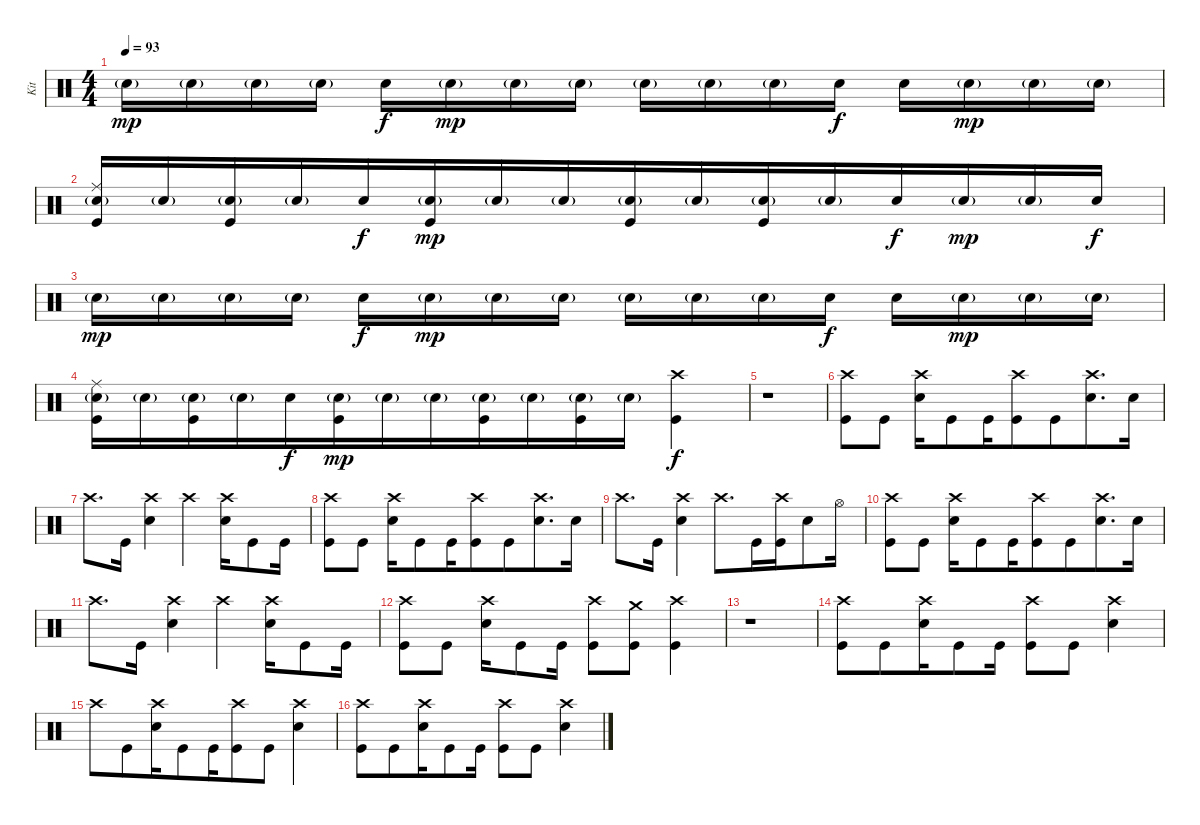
\track ("Kit" "Kit") {instrument percussion}
\staff {score}
\articulation defaults
\ts (4 4)
\tempo 93
\clef neutral
\ks aminor "Electric Snare (hit)"{g}.16{dy mp} "Electric Snare (hit)"{g}.16 "Electric Snare (hit)"{g}.16 "Electric Snare (hit)"{g}.16 "Electric Snare (hit)".16{dy f} "Electric Snare (hit)"{g}.16{dy mp} "Electric Snare (hit)"{g}.16 "Electric Snare (hit)"{g}.16 "Electric Snare (hit)"{g}.16 "Electric Snare (hit)"{g}.16 "Electric Snare (hit)"{g}.16 "Electric Snare (hit)".16{dy f} "Electric Snare (hit)".16 "Electric Snare (hit)"{g}.16{dy mp} "Electric Snare (hit)"{g}.16 "Electric Snare (hit)"{g}.16
|
("Ride (middle)" "Electric Snare (hit)"{g} "Kick (hit)").16{beam merge} "Electric Snare (hit)"{g}.16{beam merge} ("Electric Snare (hit)"{g} "Kick (hit)").16{beam merge} "Electric Snare (hit)"{g}.16{beam merge} "Electric Snare (hit)".16{dy f beam merge} ("Electric Snare (hit)"{g} "Kick (hit)").16{dy mp beam merge} "Electric Snare (hit)"{g}.16{beam merge} "Electric Snare (hit)"{g}.16{beam merge} ("Electric Snare (hit)"{g} "Kick (hit)").16{beam merge} "Electric Snare (hit)"{g}.16{beam merge} ("Electric Snare (hit)"{g} "Kick (hit)").16{beam merge} "Electric Snare (hit)"{g}.16{beam merge} "Electric Snare (hit)".16{dy f beam merge} "Electric Snare (hit)"{g}.16{dy mp beam merge} "Electric Snare (hit)"{g}.16{beam merge} "Electric Snare (hit)".16{dy f} |
"Electric Snare (hit)"{g}.16{dy mp} "Electric Snare (hit)"{g}.16 "Electric Snare (hit)"{g}.16 "Electric Snare (hit)"{g}.16 "Electric Snare (hit)".16{dy f} "Electric Snare (hit)"{g}.16{dy mp} "Electric Snare (hit)"{g}.16 "Electric Snare (hit)"{g}.16 "Electric Snare (hit)"{g}.16 "Electric Snare (hit)"{g}.16 "Electric Snare (hit)"{g}.16 "Electric Snare (hit)".16{dy f} "Electric Snare (hit)".16 "Electric Snare (hit)"{g}.16{dy mp} "Electric Snare (hit)"{g}.16 "Electric Snare (hit)"{g}.16 |
("Ride (middle)" "Electric Snare (hit)"{g} "Kick (hit)").16{beam merge} "Electric Snare (hit)"{g}.16{beam merge} ("Electric Snare (hit)"{g} "Kick (hit)").16{beam merge} "Electric Snare (hit)"{g}.16{beam merge} "Electric Snare (hit)".16{dy f beam merge} ("Electric Snare (hit)"{g} "Kick (hit)").16{dy mp beam merge} "Electric Snare (hit)"{g}.16{beam merge} "Electric Snare (hit)"{g}.16{beam merge} ("Electric Snare (hit)"{g} "Kick (hit)").16{beam merge} "Electric Snare (hit)"{g}.16{beam merge} ("Electric Snare (hit)"{g} "Kick (hit)").16{beam merge} "Electric Snare (hit)"{g}.16{beam merge} ("Crash high (hit)" "Kick (hit)").4{dy f} |
r.1 |
("Crash high (hit)" "Kick (hit)").8 "Kick (hit)".8 ("Crash high (hit)" "Electric Snare (hit)").16{beam merge} "Kick (hit)".8 "Kick (hit)".16{beam merge} ("Crash high (hit)" "Kick (hit)").8{beam merge} "Kick (hit)".8{beam merge} ("Crash high (hit)" "Electric Snare (hit)").8{d beam merge} "Electric Snare (hit)".16 |
"Crash high (hit)".8{d} "Kick (hit)".16 ("Crash high (hit)" "Electric Snare (hit)").4 "Crash high (hit)".4{beam merge} ("Crash high (hit)" "Electric Snare (hit)").16 "Kick (hit)".8 "Kick (hit)".16 |
("Crash high (hit)" "Kick (hit)").8 "Kick (hit)".8 ("Crash high (hit)" "Electric Snare (hit)").16{beam merge} "Kick (hit)".8 "Kick (hit)".16{beam merge} ("Crash high (hit)" "Kick (hit)").8{beam merge} "Kick (hit)".8{beam merge} ("Crash high (hit)" "Electric Snare (hit)").8{d beam merge} "Electric Snare (hit)".16 |
"Crash high (hit)".8{d} "Kick (hit)".16 ("Crash high (hit)" "Electric Snare (hit)").4{beam merge} "Crash high (hit)".8{d} "Kick (hit)".16{beam merge} ("Crash high (hit)" "Kick (hit)").16 "Electric Snare (hit)".8{beam merge} "Hi-Hat (open)".16 |
("Crash high (hit)" "Kick (hit)").8 "Kick (hit)".8 ("Crash high (hit)" "Electric Snare (hit)").16{beam merge} "Kick (hit)".8 "Kick (hit)".16{beam merge} ("Crash high (hit)" "Kick (hit)").8{beam merge} "Kick (hit)".8{beam merge} ("Crash high (hit)" "Electric Snare (hit)").8{d beam merge} "Electric Snare (hit)".16 |
"Crash high (hit)".8{d} "Kick (hit)".16 ("Crash high (hit)" "Electric Snare (hit)").4 "Crash high (hit)".4{beam merge} ("Crash high (hit)" "Electric Snare (hit)").16 "Kick (hit)".8 "Kick (hit)".16 |
("Crash high (hit)" "Kick (hit)").8 "Kick (hit)".8 ("Crash high (hit)" "Electric Snare (hit)").16 "Kick (hit)".8 "Kick (hit)".16 ("Crash high (hit)" "Kick (hit)").8 ("Crash medium (hit)" "Kick (hit)").8 ("Crash high (hit)" "Kick (hit)").4 |
r.1 |
("Crash high (hit)" "Kick (hit)").8{beam merge} "Kick (hit)".8{beam merge} ("Crash high (hit)" "Electric Snare (hit)").16 "Kick (hit)".8 "Kick (hit)".16 ("Crash high (hit)" "Kick (hit)").8 "Kick (hit)".8 ("Crash high (hit)" "Electric Snare (hit)").4 |
"Crash high (hit)".8 "Kick (hit)".8{beam merge} ("Crash high (hit)" "Electric Snare (hit)").16{beam merge} "Kick (hit)".8{beam merge} "Kick (hit)".16{beam merge} ("Crash high (hit)" "Kick (hit)").8{beam merge} "Kick (hit)".8{beam merge} ("Crash high (hit)" "Electric Snare (hit)").4 |
("Crash high (hit)" "Kick (hit)").8{beam merge} "Kick (hit)".8{beam merge} ("Crash high (hit)" "Electric Snare (hit)").16 "Kick (hit)".8 "Kick (hit)".16 ("Crash high (hit)" "Kick (hit)").8 "Kick (hit)".8 ("Crash high (hit)" "Electric Snare (hit)").4
